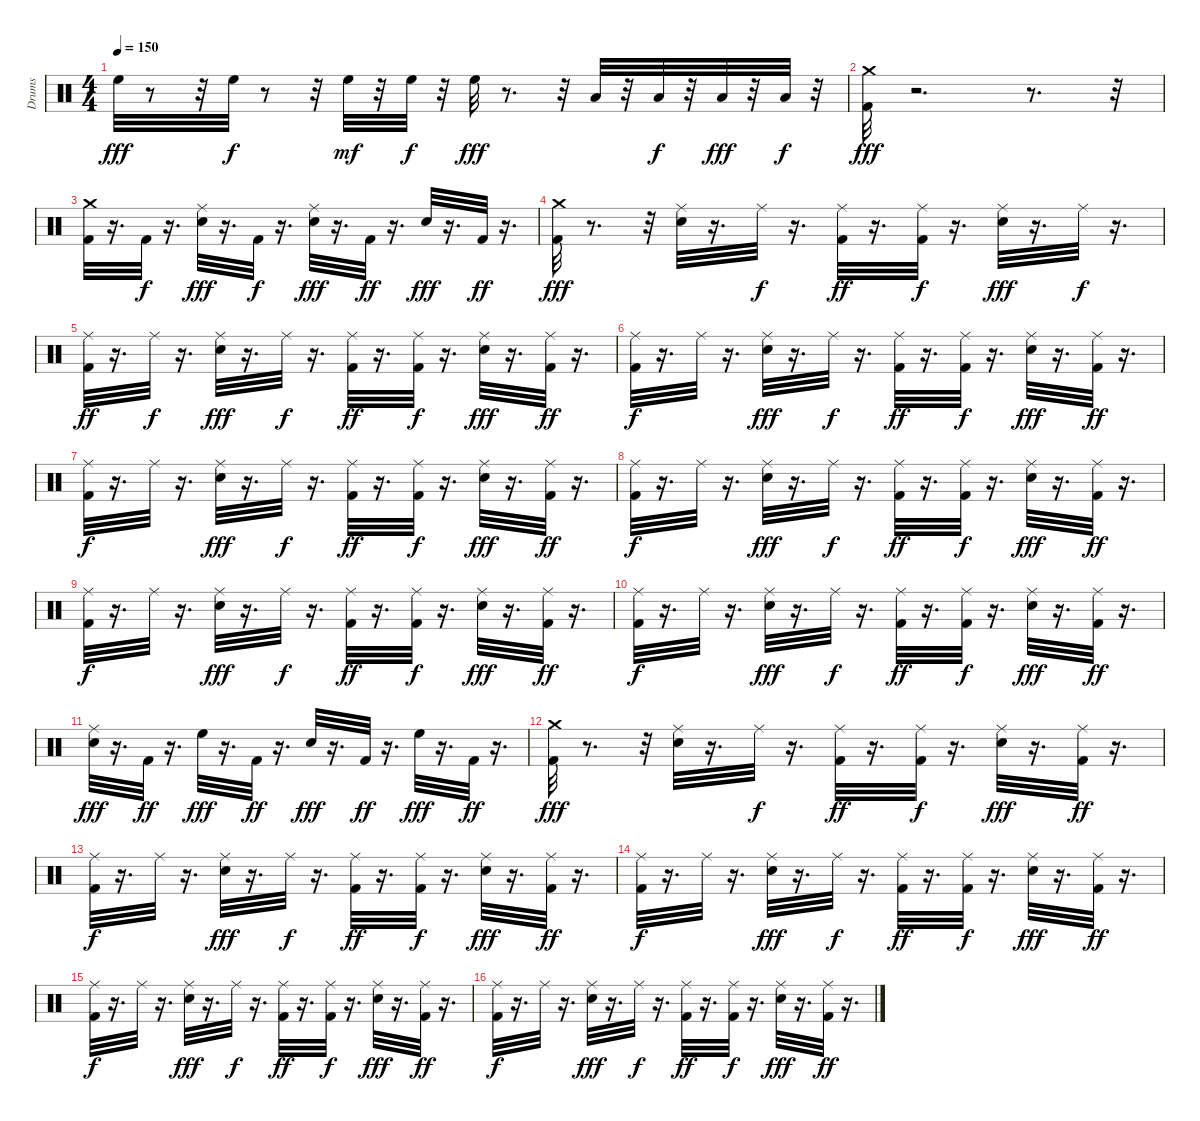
\track ("Drums" "Drums") {instrument percussion}
\staff {score}
\articulation defaults
\ts (4 4)
\tempo 150
\clef neutral
\ks c "High Floor Tom (hit)".32{dy fff}
r.8 r.32 "High Floor Tom (hit)".32{dy f} r.8 r.32 "High Floor Tom (hit)".32{dy mf} r.32 "High Floor Tom (hit)".32{dy f} r.32 "High Floor Tom (hit)".32{dy fff} r.8{d} r.32 "Low Tom (hit)".32 r.32 "Low Tom (hit)".32{dy f} r.32 "Low Floor Tom (hit)".32{dy fff} r.32 "Low Floor Tom (hit)".32{dy f} r.32 |
("Kick (hit) 2" "Crash medium (hit)").32{dy fff} r.2{d} r.8{d} r.32 |
("Kick (hit) 2" "Crash medium (hit)").32 r.16{d} "Kick (hit) 2".32{dy f} r.16{d} ("Snare (hit) 2" "Ride (middle)").32{dy fff} r.16{d} "Kick (hit) 2".32{dy f} r.16{d} ("Snare (hit) 2" "Ride (middle)").32{dy fff} r.16{d} "Kick (hit) 2".32{dy ff} r.16{d} "Snare (hit) 2".32{dy fff} r.16{d} "Kick (hit) 2".32{dy ff} r.16{d} |
("Kick (hit) 2" "Crash medium (hit)").32{dy fff} r.8{d} r.32 ("Snare (hit) 2" "Ride (middle)").32 r.16{d} "Ride (middle)".32{dy f} r.16{d} ("Kick (hit) 2" "Ride (middle)").32{dy ff} r.16{d} ("Kick (hit) 2" "Ride (middle)").32{dy f} r.16{d} ("Snare (hit) 2" "Ride (middle)").32{dy fff} r.16{d} "Ride (middle)".32{dy f} r.16{d} |
("Kick (hit) 2" "Ride (middle)").32{dy ff} r.16{d} "Ride (middle)".32{dy f} r.16{d} ("Snare (hit) 2" "Ride (middle)").32{dy fff} r.16{d} "Ride (middle)".32{dy f} r.16{d} ("Kick (hit) 2" "Ride (middle)").32{dy ff} r.16{d} ("Kick (hit) 2" "Ride (middle)").32{dy f} r.16{d} ("Snare (hit) 2" "Ride (middle)").32{dy fff} r.16{d} ("Kick (hit) 2" "Ride (middle)").32{dy ff} r.16{d} |
("Kick (hit) 2" "Ride (middle)").32{dy f} r.16{d} "Ride (middle)".32 r.16{d} ("Snare (hit) 2" "Ride (middle)").32{dy fff} r.16{d} "Ride (middle)".32{dy f} r.16{d} ("Kick (hit) 2" "Ride (middle)").32{dy ff} r.16{d} ("Kick (hit) 2" "Ride (middle)").32{dy f} r.16{d} ("Snare (hit) 2" "Ride (middle)").32{dy fff} r.16{d} ("Kick (hit) 2" "Ride (middle)").32{dy ff} r.16{d} |
("Kick (hit) 2" "Ride (middle)").32{dy f} r.16{d} "Ride (middle)".32 r.16{d} ("Snare (hit) 2" "Ride (middle)").32{dy fff} r.16{d} "Ride (middle)".32{dy f} r.16{d} ("Kick (hit) 2" "Ride (middle)").32{dy ff} r.16{d} ("Kick (hit) 2" "Ride (middle)").32{dy f} r.16{d} ("Snare (hit) 2" "Ride (middle)").32{dy fff} r.16{d} ("Kick (hit) 2" "Ride (middle)").32{dy ff} r.16{d} |
("Kick (hit) 2" "Ride (middle)").32{dy f} r.16{d} "Ride (middle)".32 r.16{d} ("Snare (hit) 2" "Ride (middle)").32{dy fff} r.16{d} "Ride (middle)".32{dy f} r.16{d} ("Kick (hit) 2" "Ride (middle)").32{dy ff} r.16{d} ("Kick (hit) 2" "Ride (middle)").32{dy f} r.16{d} ("Snare (hit) 2" "Ride (middle)").32{dy fff} r.16{d} ("Kick (hit) 2" "Ride (middle)").32{dy ff} r.16{d} |
("Kick (hit) 2" "Ride (middle)").32{dy f} r.16{d} "Ride (middle)".32 r.16{d} ("Snare (hit) 2" "Ride (middle)").32{dy fff} r.16{d} "Ride (middle)".32{dy f} r.16{d} ("Kick (hit) 2" "Ride (middle)").32{dy ff} r.16{d} ("Kick (hit) 2" "Ride (middle)").32{dy f} r.16{d} ("Snare (hit) 2" "Ride (middle)").32{dy fff} r.16{d} ("Kick (hit) 2" "Ride (middle)").32{dy ff} r.16{d} |
("Kick (hit) 2" "Ride (middle)").32{dy f} r.16{d} "Ride (middle)".32 r.16{d} ("Snare (hit) 2" "Ride (middle)").32{dy fff} r.16{d} "Ride (middle)".32{dy f} r.16{d} ("Kick (hit) 2" "Ride (middle)").32{dy ff} r.16{d} ("Kick (hit) 2" "Ride (middle)").32{dy f} r.16{d} ("Snare (hit) 2" "Ride (middle)").32{dy fff} r.16{d} ("Kick (hit) 2" "Ride (middle)").32{dy ff} r.16{d} |
("Snare (hit) 2" "Ride (middle)").32{dy fff} r.16{d} "Kick (hit) 2".32{dy ff} r.16{d} "High Floor Tom (hit)".32{dy fff} r.16{d} "Kick (hit) 2".32{dy ff} r.16{d} "Snare (hit) 2".32{dy fff} r.16{d} "Kick (hit) 2".32{dy ff} r.16{d} "High Floor Tom (hit)".32{dy fff} r.16{d} "Kick (hit) 2".32{dy ff} r.16{d} |
("Kick (hit) 2" "Crash medium (hit)").32{dy fff} r.8{d} r.32 ("Snare (hit) 2" "Ride (middle)").32 r.16{d} "Ride (middle)".32{dy f} r.16{d} ("Kick (hit) 2" "Ride (middle)").32{dy ff} r.16{d} ("Kick (hit) 2" "Ride (middle)").32{dy f} r.16{d} ("Snare (hit) 2" "Ride (middle)").32{dy fff} r.16{d} ("Kick (hit) 2" "Ride (middle)").32{dy ff} r.16{d} |
("Kick (hit) 2" "Ride (middle)").32{dy f} r.16{d} "Ride (middle)".32 r.16{d} ("Snare (hit) 2" "Ride (middle)").32{dy fff} r.16{d} "Ride (middle)".32{dy f} r.16{d} ("Kick (hit) 2" "Ride (middle)").32{dy ff} r.16{d} ("Kick (hit) 2" "Ride (middle)").32{dy f} r.16{d} ("Snare (hit) 2" "Ride (middle)").32{dy fff} r.16{d} ("Kick (hit) 2" "Ride (middle)").32{dy ff} r.16{d} |
("Kick (hit) 2" "Ride (middle)").32{dy f} r.16{d} "Ride (middle)".32 r.16{d} ("Snare (hit) 2" "Ride (middle)").32{dy fff} r.16{d} "Ride (middle)".32{dy f} r.16{d} ("Kick (hit) 2" "Ride (middle)").32{dy ff} r.16{d} ("Kick (hit) 2" "Ride (middle)").32{dy f} r.16{d} ("Snare (hit) 2" "Ride (middle)").32{dy fff} r.16{d} ("Kick (hit) 2" "Ride (middle)").32{dy ff} r.16{d} |
("Kick (hit) 2" "Ride (middle)").32{dy f} r.16{d} "Ride (middle)".32 r.16{d} ("Snare (hit) 2" "Ride (middle)").32{dy fff} r.16{d} "Ride (middle)".32{dy f} r.16{d} ("Kick (hit) 2" "Ride (middle)").32{dy ff} r.16{d} ("Kick (hit) 2" "Ride (middle)").32{dy f} r.16{d} ("Snare (hit) 2" "Ride (middle)").32{dy fff} r.16{d} ("Kick (hit) 2" "Ride (middle)").32{dy ff} r.16{d} |
("Kick (hit) 2" "Ride (middle)").32{dy f} r.16{d} "Ride (middle)".32 r.16{d} ("Snare (hit) 2" "Ride (middle)").32{dy fff} r.16{d} "Ride (middle)".32{dy f} r.16{d} ("Kick (hit) 2" "Ride (middle)").32{dy ff} r.16{d} ("Kick (hit) 2" "Ride (middle)").32{dy f} r.16{d} ("Snare (hit) 2" "Ride (middle)").32{dy fff} r.16{d} ("Kick (hit) 2" "Ride (middle)").32{dy ff} r.16{d}
